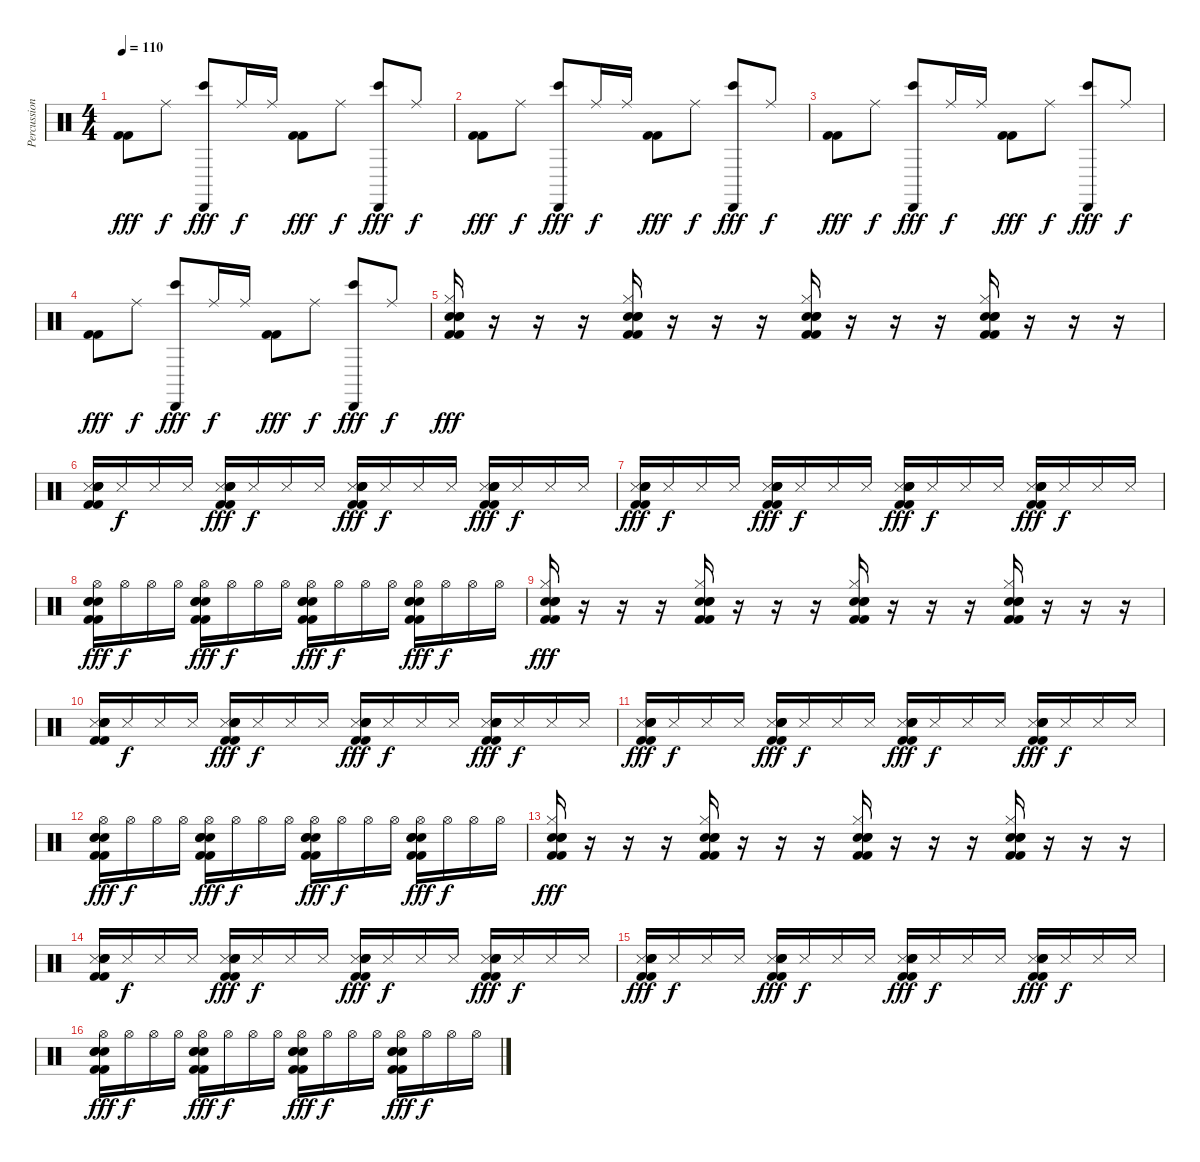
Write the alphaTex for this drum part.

\track ("Percussion" "Percussion") {instrument percussion}
\staff {score}
\articulation defaults
\ts (4 4)
\tempo 110
\clef neutral
\ks c
("Kick (hit) 2" "Kick (hit) 2").8{dy fff} "Ride (middle)".8{dy f} ("Bongo High (hit)" "Cabasa (hit)").8{dy fff} "Ride (middle)".16{dy f} "Ride (middle)".16 ("Kick (hit) 2" "Kick (hit) 2").8{dy fff} "Ride (middle)".8{dy f} ("Bongo High (hit)" "Cabasa (hit)").8{dy fff} "Ride (middle)".8{dy f} |
("Kick (hit) 2" "Kick (hit) 2").8{dy fff} "Ride (middle)".8{dy f} ("Bongo High (hit)" "Cabasa (hit)").8{dy fff} "Ride (middle)".16{dy f} "Ride (middle)".16 ("Kick (hit) 2" "Kick (hit) 2").8{dy fff} "Ride (middle)".8{dy f} ("Bongo High (hit)" "Cabasa (hit)").8{dy fff} "Ride (middle)".8{dy f} |
("Kick (hit) 2" "Kick (hit) 2").8{dy fff} "Ride (middle)".8{dy f} ("Bongo High (hit)" "Cabasa (hit)").8{dy fff} "Ride (middle)".16{dy f} "Ride (middle)".16 ("Kick (hit) 2" "Kick (hit) 2").8{dy fff} "Ride (middle)".8{dy f} ("Bongo High (hit)" "Cabasa (hit)").8{dy fff} "Ride (middle)".8{dy f} |
("Kick (hit) 2" "Kick (hit) 2").8{dy fff} "Ride (middle)".8{dy f} ("Bongo High (hit)" "Cabasa (hit)").8{dy fff} "Ride (middle)".16{dy f} "Ride (middle)".16 ("Kick (hit) 2" "Kick (hit) 2").8{dy fff} "Ride (middle)".8{dy f} ("Bongo High (hit)" "Cabasa (hit)").8{dy fff} "Ride (middle)".8{dy f} |
("Hi-Hat (closed)" "Electric Snare (hit)" "Kick (hit) 2" "Electric Snare (hit)" "Kick (hit) 2" "Electric Snare (hit)").16{dy fff volume 16} r.16 r.16 r.16 ("Hi-Hat (closed)" "Electric Snare (hit)" "Kick (hit) 2" "Electric Snare (hit)" "Kick (hit) 2" "Electric Snare (hit)").16 r.16 r.16 r.16 ("Hi-Hat (closed)" "Electric Snare (hit)" "Kick (hit) 2" "Electric Snare (hit)" "Kick (hit) 2" "Electric Snare (hit)").16 r.16 r.16 r.16 ("Hi-Hat (closed)" "Electric Snare (hit)" "Kick (hit) 2" "Electric Snare (hit)" "Kick (hit) 2" "Electric Snare (hit)").16 r.16 r.16 r.16 |
("Metronome (hit)" "Electric Snare (hit)" "Kick (hit) 2" "Electric Snare (hit)" "Kick (hit) 2" "Electric Snare (hit)").16 "Metronome (hit)".16{dy f} "Metronome (hit)".16 "Metronome (hit)".16 ("Metronome (hit)" "Electric Snare (hit)" "Kick (hit) 2" "Electric Snare (hit)" "Kick (hit) 2" "Electric Snare (hit)").16{dy fff} "Metronome (hit)".16{dy f} "Metronome (hit)".16 "Metronome (hit)".16 ("Metronome (hit)" "Electric Snare (hit)" "Kick (hit) 2" "Electric Snare (hit)" "Kick (hit) 2" "Electric Snare (hit)").16{dy fff} "Metronome (hit)".16{dy f} "Metronome (hit)".16 "Metronome (hit)".16 ("Metronome (hit)" "Electric Snare (hit)" "Kick (hit) 2" "Electric Snare (hit)" "Kick (hit) 2" "Electric Snare (hit)").16{dy fff} "Metronome (hit)".16{dy f} "Metronome (hit)".16 "Metronome (hit)".16 |
("Metronome (hit)" "Electric Snare (hit)" "Kick (hit) 2" "Electric Snare (hit)" "Kick (hit) 2" "Electric Snare (hit)").16{dy fff} "Metronome (hit)".16{dy f} "Metronome (hit)".16 "Metronome (hit)".16 ("Metronome (hit)" "Electric Snare (hit)" "Kick (hit) 2" "Electric Snare (hit)" "Kick (hit) 2" "Electric Snare (hit)").16{dy fff} "Metronome (hit)".16{dy f} "Metronome (hit)".16 "Metronome (hit)".16 ("Metronome (hit)" "Electric Snare (hit)" "Kick (hit) 2" "Electric Snare (hit)" "Kick (hit) 2" "Electric Snare (hit)").16{dy fff} "Metronome (hit)".16{dy f} "Metronome (hit)".16 "Metronome (hit)".16 ("Metronome (hit)" "Electric Snare (hit)" "Kick (hit) 2" "Electric Snare (hit)" "Kick (hit) 2" "Electric Snare (hit)").16{dy fff} "Metronome (hit)".16{dy f} "Metronome (hit)".16 "Metronome (hit)".16 |
("Hi-Hat (open)" "Electric Snare (hit)" "Kick (hit) 2" "Electric Snare (hit)" "Kick (hit) 2" "Electric Snare (hit)").16{dy fff} "Hi-Hat (open)".16{dy f} "Hi-Hat (open)".16 "Hi-Hat (open)".16 ("Hi-Hat (open)" "Electric Snare (hit)" "Kick (hit) 2" "Electric Snare (hit)" "Kick (hit) 2" "Electric Snare (hit)").16{dy fff} "Hi-Hat (open)".16{dy f} "Hi-Hat (open)".16 "Hi-Hat (open)".16 ("Hi-Hat (open)" "Electric Snare (hit)" "Kick (hit) 2" "Electric Snare (hit)" "Kick (hit) 2" "Electric Snare (hit)").16{dy fff} "Hi-Hat (open)".16{dy f} "Hi-Hat (open)".16 "Hi-Hat (open)".16 ("Hi-Hat (open)" "Electric Snare (hit)" "Kick (hit) 2" "Electric Snare (hit)" "Kick (hit) 2" "Electric Snare (hit)").16{dy fff} "Hi-Hat (open)".16{dy f} "Hi-Hat (open)".16 "Hi-Hat (open)".16 |
("Hi-Hat (closed)" "Electric Snare (hit)" "Kick (hit) 2" "Electric Snare (hit)" "Kick (hit) 2" "Electric Snare (hit)").16{dy fff volume 16} r.16 r.16 r.16 ("Hi-Hat (closed)" "Electric Snare (hit)" "Kick (hit) 2" "Electric Snare (hit)" "Kick (hit) 2" "Electric Snare (hit)").16 r.16 r.16 r.16 ("Hi-Hat (closed)" "Electric Snare (hit)" "Kick (hit) 2" "Electric Snare (hit)" "Kick (hit) 2" "Electric Snare (hit)").16 r.16 r.16 r.16 ("Hi-Hat (closed)" "Electric Snare (hit)" "Kick (hit) 2" "Electric Snare (hit)" "Kick (hit) 2" "Electric Snare (hit)").16 r.16 r.16 r.16 |
("Metronome (hit)" "Electric Snare (hit)" "Kick (hit) 2" "Electric Snare (hit)" "Kick (hit) 2" "Electric Snare (hit)").16 "Metronome (hit)".16{dy f} "Metronome (hit)".16 "Metronome (hit)".16 ("Metronome (hit)" "Electric Snare (hit)" "Kick (hit) 2" "Electric Snare (hit)" "Kick (hit) 2" "Electric Snare (hit)").16{dy fff} "Metronome (hit)".16{dy f} "Metronome (hit)".16 "Metronome (hit)".16 ("Metronome (hit)" "Electric Snare (hit)" "Kick (hit) 2" "Electric Snare (hit)" "Kick (hit) 2" "Electric Snare (hit)").16{dy fff} "Metronome (hit)".16{dy f} "Metronome (hit)".16 "Metronome (hit)".16 ("Metronome (hit)" "Electric Snare (hit)" "Kick (hit) 2" "Electric Snare (hit)" "Kick (hit) 2" "Electric Snare (hit)").16{dy fff} "Metronome (hit)".16{dy f} "Metronome (hit)".16 "Metronome (hit)".16 |
("Metronome (hit)" "Electric Snare (hit)" "Kick (hit) 2" "Electric Snare (hit)" "Kick (hit) 2" "Electric Snare (hit)").16{dy fff} "Metronome (hit)".16{dy f} "Metronome (hit)".16 "Metronome (hit)".16 ("Metronome (hit)" "Electric Snare (hit)" "Kick (hit) 2" "Electric Snare (hit)" "Kick (hit) 2" "Electric Snare (hit)").16{dy fff} "Metronome (hit)".16{dy f} "Metronome (hit)".16 "Metronome (hit)".16 ("Metronome (hit)" "Electric Snare (hit)" "Kick (hit) 2" "Electric Snare (hit)" "Kick (hit) 2" "Electric Snare (hit)").16{dy fff} "Metronome (hit)".16{dy f} "Metronome (hit)".16 "Metronome (hit)".16 ("Metronome (hit)" "Electric Snare (hit)" "Kick (hit) 2" "Electric Snare (hit)" "Kick (hit) 2" "Electric Snare (hit)").16{dy fff} "Metronome (hit)".16{dy f} "Metronome (hit)".16 "Metronome (hit)".16 |
("Hi-Hat (open)" "Electric Snare (hit)" "Kick (hit) 2" "Electric Snare (hit)" "Kick (hit) 2" "Electric Snare (hit)").16{dy fff} "Hi-Hat (open)".16{dy f} "Hi-Hat (open)".16 "Hi-Hat (open)".16 ("Hi-Hat (open)" "Electric Snare (hit)" "Kick (hit) 2" "Electric Snare (hit)" "Kick (hit) 2" "Electric Snare (hit)").16{dy fff} "Hi-Hat (open)".16{dy f} "Hi-Hat (open)".16 "Hi-Hat (open)".16 ("Hi-Hat (open)" "Electric Snare (hit)" "Kick (hit) 2" "Electric Snare (hit)" "Kick (hit) 2" "Electric Snare (hit)").16{dy fff} "Hi-Hat (open)".16{dy f} "Hi-Hat (open)".16 "Hi-Hat (open)".16 ("Hi-Hat (open)" "Electric Snare (hit)" "Kick (hit) 2" "Electric Snare (hit)" "Kick (hit) 2" "Electric Snare (hit)").16{dy fff} "Hi-Hat (open)".16{dy f} "Hi-Hat (open)".16 "Hi-Hat (open)".16 |
("Hi-Hat (closed)" "Electric Snare (hit)" "Kick (hit) 2" "Electric Snare (hit)" "Kick (hit) 2" "Electric Snare (hit)").16{dy fff volume 16} r.16 r.16 r.16 ("Hi-Hat (closed)" "Electric Snare (hit)" "Kick (hit) 2" "Electric Snare (hit)" "Kick (hit) 2" "Electric Snare (hit)").16 r.16 r.16 r.16 ("Hi-Hat (closed)" "Electric Snare (hit)" "Kick (hit) 2" "Electric Snare (hit)" "Kick (hit) 2" "Electric Snare (hit)").16 r.16 r.16 r.16 ("Hi-Hat (closed)" "Electric Snare (hit)" "Kick (hit) 2" "Electric Snare (hit)" "Kick (hit) 2" "Electric Snare (hit)").16 r.16 r.16 r.16 |
("Metronome (hit)" "Electric Snare (hit)" "Kick (hit) 2" "Electric Snare (hit)" "Kick (hit) 2" "Electric Snare (hit)").16 "Metronome (hit)".16{dy f} "Metronome (hit)".16 "Metronome (hit)".16 ("Metronome (hit)" "Electric Snare (hit)" "Kick (hit) 2" "Electric Snare (hit)" "Kick (hit) 2" "Electric Snare (hit)").16{dy fff} "Metronome (hit)".16{dy f} "Metronome (hit)".16 "Metronome (hit)".16 ("Metronome (hit)" "Electric Snare (hit)" "Kick (hit) 2" "Electric Snare (hit)" "Kick (hit) 2" "Electric Snare (hit)").16{dy fff} "Metronome (hit)".16{dy f} "Metronome (hit)".16 "Metronome (hit)".16 ("Metronome (hit)" "Electric Snare (hit)" "Kick (hit) 2" "Electric Snare (hit)" "Kick (hit) 2" "Electric Snare (hit)").16{dy fff} "Metronome (hit)".16{dy f} "Metronome (hit)".16 "Metronome (hit)".16 |
("Metronome (hit)" "Electric Snare (hit)" "Kick (hit) 2" "Electric Snare (hit)" "Kick (hit) 2" "Electric Snare (hit)").16{dy fff} "Metronome (hit)".16{dy f} "Metronome (hit)".16 "Metronome (hit)".16 ("Metronome (hit)" "Electric Snare (hit)" "Kick (hit) 2" "Electric Snare (hit)" "Kick (hit) 2" "Electric Snare (hit)").16{dy fff} "Metronome (hit)".16{dy f} "Metronome (hit)".16 "Metronome (hit)".16 ("Metronome (hit)" "Electric Snare (hit)" "Kick (hit) 2" "Electric Snare (hit)" "Kick (hit) 2" "Electric Snare (hit)").16{dy fff} "Metronome (hit)".16{dy f} "Metronome (hit)".16 "Metronome (hit)".16 ("Metronome (hit)" "Electric Snare (hit)" "Kick (hit) 2" "Electric Snare (hit)" "Kick (hit) 2" "Electric Snare (hit)").16{dy fff} "Metronome (hit)".16{dy f} "Metronome (hit)".16 "Metronome (hit)".16 |
("Hi-Hat (open)" "Electric Snare (hit)" "Kick (hit) 2" "Electric Snare (hit)" "Kick (hit) 2" "Electric Snare (hit)").16{dy fff} "Hi-Hat (open)".16{dy f} "Hi-Hat (open)".16 "Hi-Hat (open)".16 ("Hi-Hat (open)" "Electric Snare (hit)" "Kick (hit) 2" "Electric Snare (hit)" "Kick (hit) 2" "Electric Snare (hit)").16{dy fff} "Hi-Hat (open)".16{dy f} "Hi-Hat (open)".16 "Hi-Hat (open)".16 ("Hi-Hat (open)" "Electric Snare (hit)" "Kick (hit) 2" "Electric Snare (hit)" "Kick (hit) 2" "Electric Snare (hit)").16{dy fff} "Hi-Hat (open)".16{dy f} "Hi-Hat (open)".16 "Hi-Hat (open)".16 ("Hi-Hat (open)" "Electric Snare (hit)" "Kick (hit) 2" "Electric Snare (hit)" "Kick (hit) 2" "Electric Snare (hit)").16{dy fff} "Hi-Hat (open)".16{dy f} "Hi-Hat (open)".16 "Hi-Hat (open)".16
